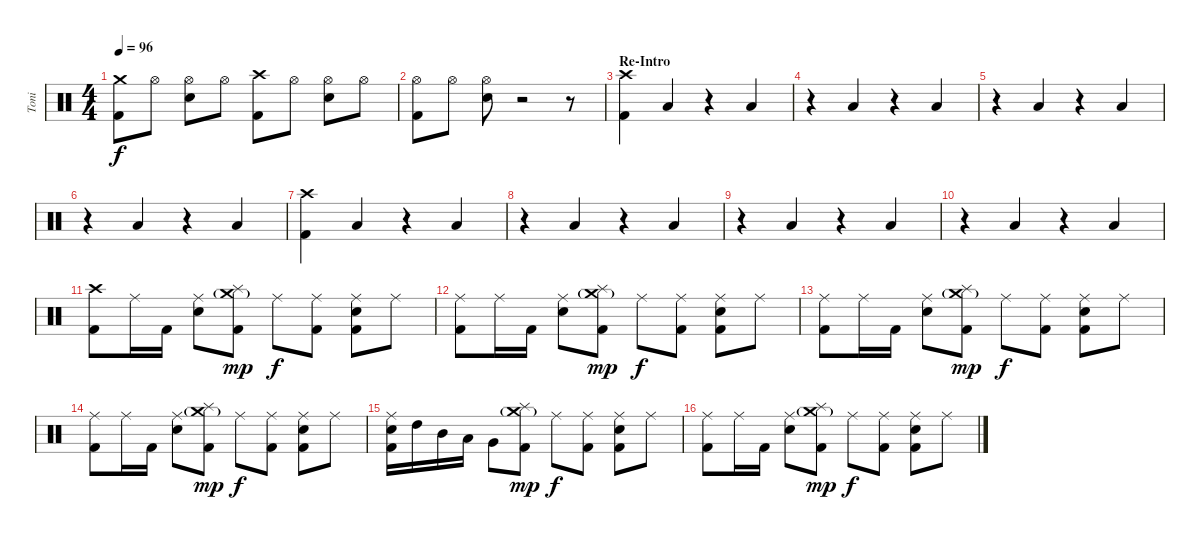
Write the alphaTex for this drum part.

\track ("Toni" "Toni") {instrument percussion}
\staff {score}
\articulation defaults
\ts (4 4)
\tempo 96
\clef neutral
\ks c
("Crash medium (hit)" "Kick (hit) 2").8{dy f} "Hi-Hat (open)".8 ("Hi-Hat (open)" "Electric Snare (hit)").8 "Hi-Hat (open)".8 ("Crash high (hit)" "Kick (hit) 2").8 "Hi-Hat (open)".8 ("Hi-Hat (open)" "Electric Snare (hit)").8 "Hi-Hat (open)".8 |
("Hi-Hat (open)" "Kick (hit) 2").8 "Hi-Hat (open)".8 ("Hi-Hat (open)" "Electric Snare (hit)").8 r.2 r.8 |
\section ("" "Re-Intro")
("Crash high (hit)" "Kick (hit) 2").4 "Low Tom (hit)".4 r.4 "Low Tom (hit)".4 |
r.4 "Low Tom (hit)".4 r.4 "Low Tom (hit)".4 |
r.4 "Low Tom (hit)".4 r.4 "Low Tom (hit)".4 |
r.4 "Low Tom (hit)".4 r.4 "Low Tom (hit)".4 |
("Crash high (hit)" "Kick (hit) 2").4 "Low Tom (hit)".4 r.4 "Low Tom (hit)".4 |
r.4 "Low Tom (hit)".4 r.4 "Low Tom (hit)".4 |
r.4 "Low Tom (hit)".4 r.4 "Low Tom (hit)".4 |
r.4 "Low Tom (hit)".4 r.4 "Low Tom (hit)".4 |
("Crash high (hit)" "Kick (hit) 2").8 "Ride (middle)".16 "Kick (hit) 2".16 ("Ride (middle)" "Electric Snare (hit)").8 ("Crash medium (hit)"{g} "Splash (hit)" "Kick (hit) 2").8{dy mp} "Ride (middle)".8{dy f} ("Ride (middle)" "Kick (hit) 2").8 ("Ride (middle)" "Electric Snare (hit)" "Kick (hit) 2").8 "Ride (middle)".8 |
("Ride (middle)" "Kick (hit) 2").8 "Ride (middle)".16 "Kick (hit) 2".16 ("Ride (middle)" "Electric Snare (hit)").8 ("Crash medium (hit)"{g} "Splash (hit)" "Kick (hit) 2").8{dy mp} "Ride (middle)".8{dy f} ("Ride (middle)" "Kick (hit) 2").8 ("Ride (middle)" "Electric Snare (hit)" "Kick (hit) 2").8 "Ride (middle)".8 |
("Ride (middle)" "Kick (hit) 2").8 "Ride (middle)".16 "Kick (hit) 2".16 ("Ride (middle)" "Electric Snare (hit)").8 ("Crash medium (hit)"{g} "Splash (hit)" "Kick (hit) 2").8{dy mp} "Ride (middle)".8{dy f} ("Ride (middle)" "Kick (hit) 2").8 ("Ride (middle)" "Electric Snare (hit)" "Kick (hit) 2").8 "Ride (middle)".8 |
("Ride (middle)" "Kick (hit) 2").8 "Ride (middle)".16 "Kick (hit) 2".16 ("Ride (middle)" "Electric Snare (hit)").8 ("Crash medium (hit)"{g} "Splash (hit)" "Kick (hit) 2").8{dy mp} "Ride (middle)".8{dy f} ("Ride (middle)" "Kick (hit) 2").8 ("Ride (middle)" "Electric Snare (hit)" "Kick (hit) 2").8 "Ride (middle)".8 |
("Ride (middle)" "Electric Snare (hit)" "Kick (hit) 2").16 "High Tom (hit)".16 "Mid Tom (hit)".16 "Low Tom (hit)".16 "Very Low Tom (hit)".8 ("Crash medium (hit)"{g} "Splash (hit)" "Kick (hit) 2").8{dy mp} "Ride (middle)".8{dy f} ("Ride (middle)" "Kick (hit) 2").8 ("Ride (middle)" "Electric Snare (hit)" "Kick (hit) 2").8 "Ride (middle)".8 |
("Ride (middle)" "Kick (hit) 2").8 "Ride (middle)".16 "Kick (hit) 2".16 ("Ride (middle)" "Electric Snare (hit)").8 ("Crash medium (hit)"{g} "Splash (hit)" "Kick (hit) 2").8{dy mp} "Ride (middle)".8{dy f} ("Ride (middle)" "Kick (hit) 2").8 ("Ride (middle)" "Electric Snare (hit)" "Kick (hit) 2").8 "Ride (middle)".8
